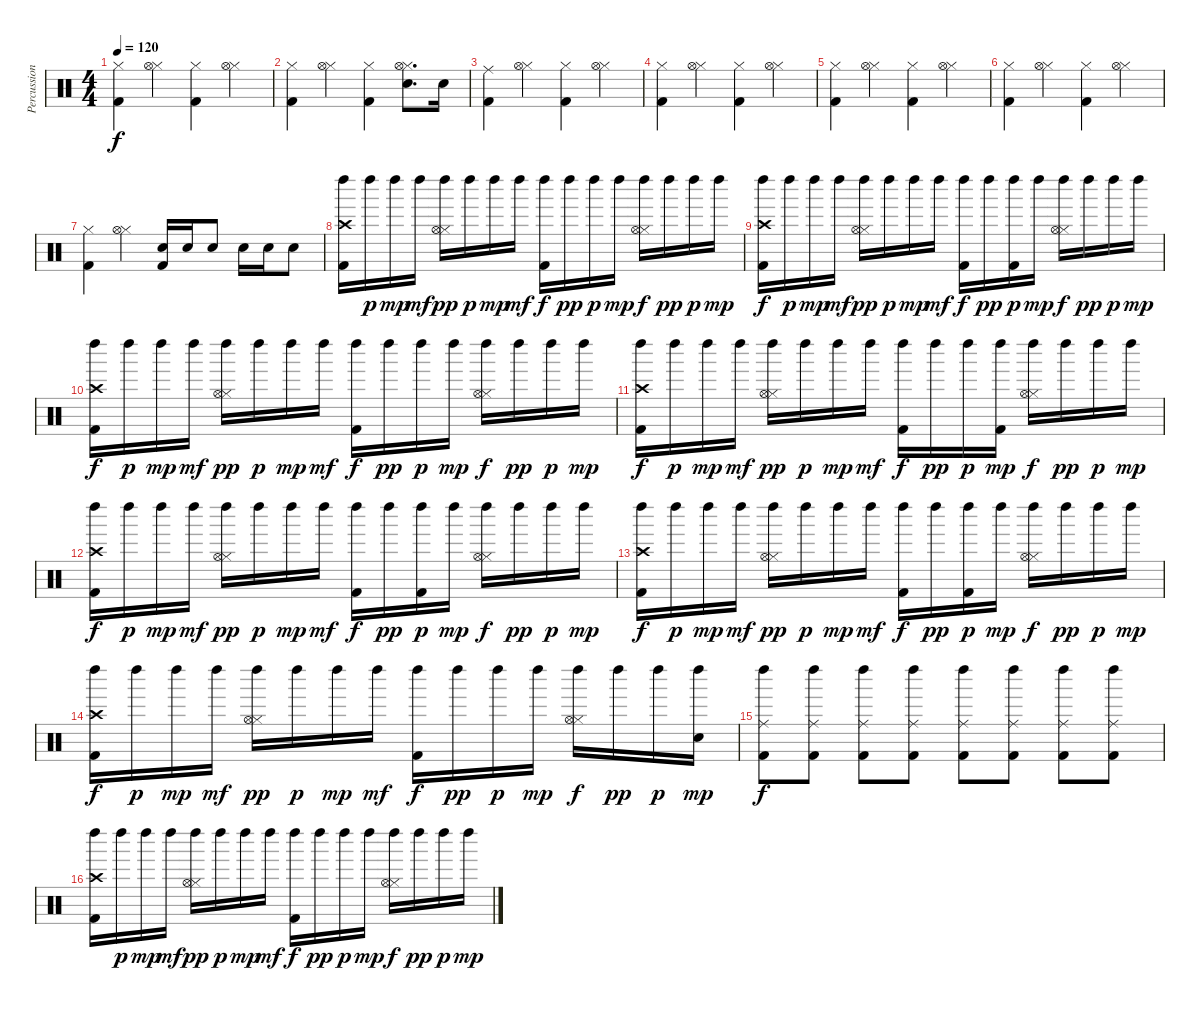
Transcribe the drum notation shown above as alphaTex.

\track ("Percussion" "Percussion") {instrument percussion}
\staff {score}
\articulation defaults
\ts (4 4)
\tempo 120
\clef neutral
\ks c
("Kick (hit) 2" "Hi-Hat (closed)").4{dy f} ("Hi-Hat (closed)" "Hi-Hat (open)").4 ("Kick (hit) 2" "Hi-Hat (closed)").4 ("Hi-Hat (closed)" "Hi-Hat (open)").4 |
("Kick (hit) 2" "Hi-Hat (closed)").4 ("Hi-Hat (closed)" "Hi-Hat (open)").4 ("Kick (hit) 2" "Hi-Hat (closed)").4 ("Snare (hit) 2" "Hi-Hat (closed)" "Hi-Hat (open)").8{d} "Snare (hit) 2".16 |
("Kick (hit) 2" "Ride (middle)").4 ("Hi-Hat (closed)" "Hi-Hat (open)").4 ("Kick (hit) 2" "Hi-Hat (closed)").4 ("Hi-Hat (closed)" "Hi-Hat (open)").4 |
("Kick (hit) 2" "Hi-Hat (closed)").4 ("Hi-Hat (closed)" "Hi-Hat (open)").4 ("Kick (hit) 2" "Hi-Hat (closed)").4 ("Hi-Hat (closed)" "Hi-Hat (open)").4 |
("Kick (hit) 2" "Hi-Hat (closed)").4 ("Hi-Hat (closed)" "Hi-Hat (open)").4 ("Kick (hit) 2" "Hi-Hat (closed)").4 ("Hi-Hat (closed)" "Hi-Hat (open)").4 |
("Kick (hit) 2" "Hi-Hat (closed)").4 ("Hi-Hat (closed)" "Hi-Hat (open)").4 ("Kick (hit) 2" "Hi-Hat (closed)").4 ("Hi-Hat (closed)" "Hi-Hat (open)").4 |
("Kick (hit) 2" "Hi-Hat (closed)").4 ("Hi-Hat (closed)" "Hi-Hat (open)").4 ("Kick (hit) 2" "Snare (hit) 2").16 "Snare (hit) 2".16 "Snare (hit) 2".8 "Snare (hit) 2".16 "Snare (hit) 2".16 "Snare (hit) 2".8 |
("Kick (hit) 2" "Crash high (hit)" "Left Maraca (hit)").16 "Left Maraca (hit)".16{dy p} "Left Maraca (hit)".16{dy mp} "Left Maraca (hit)".16{dy mf} ("Hi-Hat (closed)" "Hi-Hat (open)" "Left Maraca (hit)").16{dy pp} "Left Maraca (hit)".16{dy p} "Left Maraca (hit)".16{dy mp} "Left Maraca (hit)".16{dy mf} ("Kick (hit) 2" "Left Maraca (hit)").16{dy f} "Left Maraca (hit)".16{dy pp} "Left Maraca (hit)".16{dy p} "Left Maraca (hit)".16{dy mp} ("Hi-Hat (closed)" "Hi-Hat (open)" "Left Maraca (hit)").16{dy f} "Left Maraca (hit)".16{dy pp} "Left Maraca (hit)".16{dy p} "Left Maraca (hit)".16{dy mp} |
("Kick (hit) 2" "Crash high (hit)" "Left Maraca (hit)").16{dy f} "Left Maraca (hit)".16{dy p} "Left Maraca (hit)".16{dy mp} "Left Maraca (hit)".16{dy mf} ("Hi-Hat (closed)" "Hi-Hat (open)" "Left Maraca (hit)").16{dy pp} "Left Maraca (hit)".16{dy p} "Left Maraca (hit)".16{dy mp} "Left Maraca (hit)".16{dy mf} ("Kick (hit) 2" "Left Maraca (hit)").16{dy f} "Left Maraca (hit)".16{dy pp} ("Kick (hit) 2" "Left Maraca (hit)").16{dy p} "Left Maraca (hit)".16{dy mp} ("Hi-Hat (closed)" "Hi-Hat (open)" "Left Maraca (hit)").16{dy f} "Left Maraca (hit)".16{dy pp} "Left Maraca (hit)".16{dy p} "Left Maraca (hit)".16{dy mp} |
("Kick (hit) 2" "Crash high (hit)" "Left Maraca (hit)").16{dy f} "Left Maraca (hit)".16{dy p} "Left Maraca (hit)".16{dy mp} "Left Maraca (hit)".16{dy mf} ("Hi-Hat (closed)" "Hi-Hat (open)" "Left Maraca (hit)").16{dy pp} "Left Maraca (hit)".16{dy p} "Left Maraca (hit)".16{dy mp} "Left Maraca (hit)".16{dy mf} ("Kick (hit) 2" "Left Maraca (hit)").16{dy f} "Left Maraca (hit)".16{dy pp} "Left Maraca (hit)".16{dy p} "Left Maraca (hit)".16{dy mp} ("Hi-Hat (closed)" "Hi-Hat (open)" "Left Maraca (hit)").16{dy f} "Left Maraca (hit)".16{dy pp} "Left Maraca (hit)".16{dy p} "Left Maraca (hit)".16{dy mp} |
("Kick (hit) 2" "Crash high (hit)" "Left Maraca (hit)").16{dy f} "Left Maraca (hit)".16{dy p} "Left Maraca (hit)".16{dy mp} "Left Maraca (hit)".16{dy mf} ("Hi-Hat (closed)" "Hi-Hat (open)" "Left Maraca (hit)").16{dy pp} "Left Maraca (hit)".16{dy p} "Left Maraca (hit)".16{dy mp} "Left Maraca (hit)".16{dy mf} ("Kick (hit) 2" "Left Maraca (hit)").16{dy f} "Left Maraca (hit)".16{dy pp} "Left Maraca (hit)".16{dy p} ("Kick (hit) 2" "Left Maraca (hit)").16{dy mp} ("Hi-Hat (closed)" "Hi-Hat (open)" "Left Maraca (hit)").16{dy f} "Left Maraca (hit)".16{dy pp} "Left Maraca (hit)".16{dy p} "Left Maraca (hit)".16{dy mp} |
("Kick (hit) 2" "Crash high (hit)" "Left Maraca (hit)").16{dy f} "Left Maraca (hit)".16{dy p} "Left Maraca (hit)".16{dy mp} "Left Maraca (hit)".16{dy mf} ("Hi-Hat (closed)" "Hi-Hat (open)" "Left Maraca (hit)").16{dy pp} "Left Maraca (hit)".16{dy p} "Left Maraca (hit)".16{dy mp} "Left Maraca (hit)".16{dy mf} ("Kick (hit) 2" "Left Maraca (hit)").16{dy f} "Left Maraca (hit)".16{dy pp} ("Kick (hit) 2" "Left Maraca (hit)").16{dy p} "Left Maraca (hit)".16{dy mp} ("Hi-Hat (closed)" "Hi-Hat (open)" "Left Maraca (hit)").16{dy f} "Left Maraca (hit)".16{dy pp} "Left Maraca (hit)".16{dy p} "Left Maraca (hit)".16{dy mp} |
("Kick (hit) 2" "Crash high (hit)" "Left Maraca (hit)").16{dy f} "Left Maraca (hit)".16{dy p} "Left Maraca (hit)".16{dy mp} "Left Maraca (hit)".16{dy mf} ("Hi-Hat (closed)" "Hi-Hat (open)" "Left Maraca (hit)").16{dy pp} "Left Maraca (hit)".16{dy p} "Left Maraca (hit)".16{dy mp} "Left Maraca (hit)".16{dy mf} ("Kick (hit) 2" "Left Maraca (hit)").16{dy f} "Left Maraca (hit)".16{dy pp} ("Kick (hit) 2" "Left Maraca (hit)").16{dy p} "Left Maraca (hit)".16{dy mp} ("Hi-Hat (closed)" "Hi-Hat (open)" "Left Maraca (hit)").16{dy f} "Left Maraca (hit)".16{dy pp} "Left Maraca (hit)".16{dy p} "Left Maraca (hit)".16{dy mp} |
("Kick (hit) 2" "Crash high (hit)" "Left Maraca (hit)").16{dy f} "Left Maraca (hit)".16{dy p} "Left Maraca (hit)".16{dy mp} "Left Maraca (hit)".16{dy mf} ("Hi-Hat (closed)" "Hi-Hat (open)" "Left Maraca (hit)").16{dy pp} "Left Maraca (hit)".16{dy p} "Left Maraca (hit)".16{dy mp} "Left Maraca (hit)".16{dy mf} ("Kick (hit) 2" "Left Maraca (hit)").16{dy f} "Left Maraca (hit)".16{dy pp} "Left Maraca (hit)".16{dy p} "Left Maraca (hit)".16{dy mp} ("Hi-Hat (closed)" "Hi-Hat (open)" "Left Maraca (hit)").16{dy f} "Left Maraca (hit)".16{dy pp} "Left Maraca (hit)".16{dy p} ("Snare (hit) 2" "Left Maraca (hit)").16{dy mp} |
("Kick (hit) 2" "Ride (middle)" "Left Maraca (hit)").8{dy f} ("Kick (hit) 2" "Ride (middle)" "Left Maraca (hit)").8 ("Kick (hit) 2" "Ride (middle)" "Left Maraca (hit)").8 ("Kick (hit) 2" "Ride (middle)" "Left Maraca (hit)").8 ("Kick (hit) 2" "Ride (middle)" "Left Maraca (hit)").8 ("Kick (hit) 2" "Ride (middle)" "Left Maraca (hit)").8 ("Kick (hit) 2" "Ride (middle)" "Left Maraca (hit)").8 ("Kick (hit) 2" "Ride (middle)" "Left Maraca (hit)").8 |
("Kick (hit) 2" "Crash high (hit)" "Left Maraca (hit)").16 "Left Maraca (hit)".16{dy p} "Left Maraca (hit)".16{dy mp} "Left Maraca (hit)".16{dy mf} ("Hi-Hat (closed)" "Hi-Hat (open)" "Left Maraca (hit)").16{dy pp} "Left Maraca (hit)".16{dy p} "Left Maraca (hit)".16{dy mp} "Left Maraca (hit)".16{dy mf} ("Kick (hit) 2" "Left Maraca (hit)").16{dy f} "Left Maraca (hit)".16{dy pp} "Left Maraca (hit)".16{dy p} "Left Maraca (hit)".16{dy mp} ("Hi-Hat (closed)" "Hi-Hat (open)" "Left Maraca (hit)").16{dy f} "Left Maraca (hit)".16{dy pp} "Left Maraca (hit)".16{dy p} "Left Maraca (hit)".16{dy mp}
